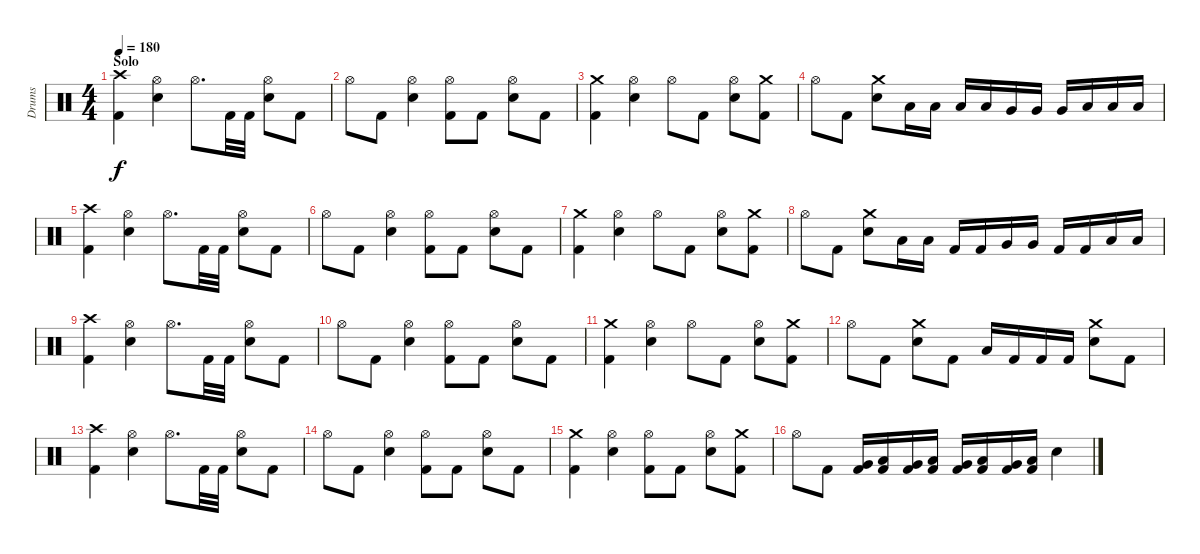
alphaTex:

\track ("Drums" "Drums") {instrument percussion}
\staff {score}
\articulation defaults
\ts (4 4)
\section ("" "Solo")
\tempo 180
\clef neutral
\ks c
("Crash high (hit)" "Kick (hit) 2").4{dy f} ("Hi-Hat (open)" "Snare (hit) 2").4 "Hi-Hat (open)".8{d} "Kick (hit) 2".32 "Kick (hit) 2".32 ("Hi-Hat (open)" "Snare (hit) 2").8 "Kick (hit) 2".8 |
"Hi-Hat (open)".8 "Kick (hit) 2".8 ("Hi-Hat (open)" "Snare (hit) 2").4 ("Hi-Hat (open)" "Kick (hit) 2").8 "Kick (hit) 2".8 ("Hi-Hat (open)" "Snare (hit) 2").8 "Kick (hit) 2".8 |
("Crash medium (hit)" "Kick (hit) 2").4 ("Hi-Hat (open)" "Snare (hit) 2").4 "Hi-Hat (open)".8 "Kick (hit) 2".8 ("Hi-Hat (open)" "Snare (hit) 2").8 ("Crash medium (hit)" "Kick (hit) 2").8 |
"Hi-Hat (open)".8 "Kick (hit) 2".8 ("Crash medium (hit)" "Snare (hit) 2").8 "Low Tom (hit)".16 "Low Tom (hit)".16 "Low Tom (hit)".16 "Low Tom (hit)".16 "Very Low Tom (hit)".16 "Very Low Tom (hit)".16 "Very Low Tom (hit)".16 "Low Floor Tom (hit)".16 "Low Floor Tom (hit)".16 "Low Floor Tom (hit)".16 |
("Crash high (hit)" "Kick (hit) 2").4 ("Hi-Hat (open)" "Snare (hit) 2").4 "Hi-Hat (open)".8{d} "Kick (hit) 2".32 "Kick (hit) 2".32 ("Hi-Hat (open)" "Snare (hit) 2").8 "Kick (hit) 2".8 |
"Hi-Hat (open)".8 "Kick (hit) 2".8 ("Hi-Hat (open)" "Snare (hit) 2").4 ("Hi-Hat (open)" "Kick (hit) 2").8 "Kick (hit) 2".8 ("Hi-Hat (open)" "Snare (hit) 2").8 "Kick (hit) 2".8 |
("Crash medium (hit)" "Kick (hit) 2").4 ("Hi-Hat (open)" "Snare (hit) 2").4 "Hi-Hat (open)".8 "Kick (hit) 2".8 ("Hi-Hat (open)" "Snare (hit) 2").8 ("Crash medium (hit)" "Kick (hit) 2").8 |
"Hi-Hat (open)".8 "Kick (hit) 2".8 ("Crash medium (hit)" "Snare (hit) 2").8 "Low Tom (hit)".16 "Low Tom (hit)".16 "Kick (hit) 2".16 "Kick (hit) 2".16 "Very Low Tom (hit)".16 "Very Low Tom (hit)".16 "Kick (hit) 2".16 "Kick (hit) 2".16 "Low Floor Tom (hit)".16 "Low Floor Tom (hit)".16 |
("Crash high (hit)" "Kick (hit) 2").4 ("Hi-Hat (open)" "Snare (hit) 2").4 "Hi-Hat (open)".8{d} "Kick (hit) 2".32 "Kick (hit) 2".32 ("Hi-Hat (open)" "Snare (hit) 2").8 "Kick (hit) 2".8 |
"Hi-Hat (open)".8 "Kick (hit) 2".8 ("Hi-Hat (open)" "Snare (hit) 2").4 ("Hi-Hat (open)" "Kick (hit) 2").8 "Kick (hit) 2".8 ("Hi-Hat (open)" "Snare (hit) 2").8 "Kick (hit) 2".8 |
("Crash medium (hit)" "Kick (hit) 2").4 ("Hi-Hat (open)" "Snare (hit) 2").4 "Hi-Hat (open)".8 "Kick (hit) 2".8 ("Hi-Hat (open)" "Snare (hit) 2").8 ("Crash medium (hit)" "Kick (hit) 2").8 |
"Hi-Hat (open)".8 "Kick (hit) 2".8 ("Crash medium (hit)" "Snare (hit) 2").8 "Kick (hit) 2".8 "Low Tom (hit)".16 "Kick (hit) 2".16 "Kick (hit) 2".16 "Kick (hit) 2".16 ("Crash medium (hit)" "Snare (hit) 2").8 "Kick (hit) 2".8 |
("Crash high (hit)" "Kick (hit) 2").4 ("Hi-Hat (open)" "Snare (hit) 2").4 "Hi-Hat (open)".8{d} "Kick (hit) 2".32 "Kick (hit) 2".32 ("Hi-Hat (open)" "Snare (hit) 2").8 "Kick (hit) 2".8 |
"Hi-Hat (open)".8 "Kick (hit) 2".8 ("Hi-Hat (open)" "Snare (hit) 2").4 ("Hi-Hat (open)" "Kick (hit) 2").8 "Kick (hit) 2".8 ("Hi-Hat (open)" "Snare (hit) 2").8 "Kick (hit) 2".8 |
("Crash medium (hit)" "Kick (hit) 2").4 ("Hi-Hat (open)" "Snare (hit) 2").4 ("Hi-Hat (open)" "Kick (hit) 2").8 "Kick (hit) 2".8 ("Hi-Hat (open)" "Snare (hit) 2").8 ("Crash medium (hit)" "Kick (hit) 2").8 |
"Hi-Hat (open)".8 "Kick (hit) 2".8 ("Very Low Tom (hit)" "Kick (hit) 2").16 ("Low Floor Tom (hit)" "Kick (hit) 2").16 ("Very Low Tom (hit)" "Kick (hit) 2").16 ("Low Floor Tom (hit)" "Kick (hit) 2").16 ("Very Low Tom (hit)" "Kick (hit) 2").16 ("Low Floor Tom (hit)" "Kick (hit) 2").16 ("Very Low Tom (hit)" "Kick (hit) 2").16 ("Low Floor Tom (hit)" "Kick (hit) 2").16 "Snare (hit) 2".4
